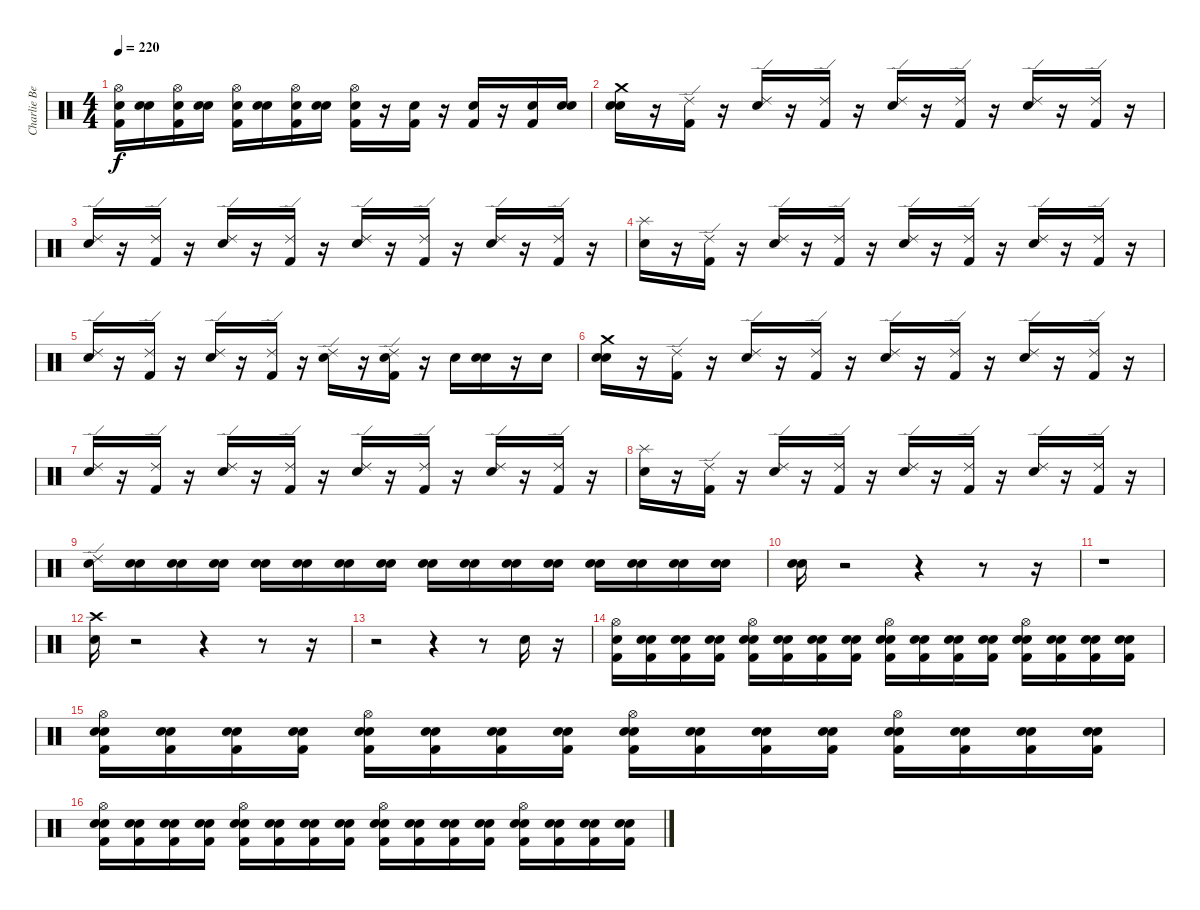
\track ("Charlie Benante" "Charlie Be") {instrument percussion}
\staff {score}
\articulation defaults
\ts (4 4)
\tempo 220
\clef neutral
\ks c
("Snare (hit)" "Kick (hit) 2" "Hi-Hat (open)").16{dy f} ("Snare (hit)" "Snare (hit) 2").16 ("Snare (hit)" "Kick (hit) 2" "Hi-Hat (open)").16 ("Snare (hit)" "Snare (hit) 2").16 ("Snare (hit)" "Kick (hit) 2" "Hi-Hat (open)").16 ("Snare (hit)" "Snare (hit) 2").16 ("Snare (hit)" "Kick (hit) 2" "Hi-Hat (open)").16 ("Snare (hit)" "Snare (hit) 2").16 ("Snare (hit)" "Kick (hit) 2" "Hi-Hat (open)").16 r.16 ("Kick (hit) 2" "Snare (hit) 2").16 r.16 ("Kick (hit) 2" "Snare (hit) 2").16 r.16 ("Kick (hit) 2" "Snare (hit) 2").16 ("Snare (hit)" "Snare (hit) 2").16 |
("Snare (hit)" "Snare (hit) 2" "Crash medium (hit)").16 r.16 ("Kick (hit) 2" "Ride (edge) 2").16 r.16 ("Snare (hit) 2" "Ride (edge) 2").16 r.16 ("Kick (hit) 2" "Ride (edge) 2").16 r.16 ("Snare (hit) 2" "Ride (edge) 2").16 r.16 ("Kick (hit) 2" "Ride (edge) 2").16 r.16 ("Snare (hit) 2" "Ride (edge) 2").16 r.16 ("Kick (hit) 2" "Ride (edge) 2").16 r.16 |
("Snare (hit) 2" "Ride (edge) 2").16 r.16 ("Kick (hit) 2" "Ride (edge) 2").16 r.16 ("Snare (hit) 2" "Ride (edge) 2").16 r.16 ("Kick (hit) 2" "Ride (edge) 2").16 r.16 ("Snare (hit) 2" "Ride (edge) 2").16 r.16 ("Kick (hit) 2" "Ride (edge) 2").16 r.16 ("Snare (hit) 2" "Ride (edge) 2").16 r.16 ("Kick (hit) 2" "Ride (edge) 2").16 r.16 |
("Snare (hit) 2" "Splash (hit)").16 r.16 ("Kick (hit) 2" "Ride (edge) 2").16 r.16 ("Snare (hit) 2" "Ride (edge) 2").16 r.16 ("Kick (hit) 2" "Ride (edge) 2").16 r.16 ("Snare (hit) 2" "Ride (edge) 2").16 r.16 ("Kick (hit) 2" "Ride (edge) 2").16 r.16 ("Snare (hit) 2" "Ride (edge) 2").16 r.16 ("Kick (hit) 2" "Ride (edge) 2").16 r.16 |
("Snare (hit) 2" "Ride (edge) 2").16 r.16 ("Kick (hit) 2" "Ride (edge) 2").16 r.16 ("Snare (hit) 2" "Ride (edge) 2").16 r.16 ("Kick (hit) 2" "Ride (edge) 2").16 r.16 ("Snare (hit) 2" "Ride (edge) 2").16 r.16 ("Kick (hit) 2" "Snare (hit) 2" "Ride (edge) 2").16 r.16 "Snare (hit) 2".16 ("Snare (hit)" "Snare (hit) 2").16 r.16 "Snare (hit) 2".16 |
("Snare (hit)" "Snare (hit) 2" "Crash medium (hit)").16 r.16 ("Kick (hit) 2" "Ride (edge) 2").16 r.16 ("Snare (hit) 2" "Ride (edge) 2").16 r.16 ("Kick (hit) 2" "Ride (edge) 2").16 r.16 ("Snare (hit) 2" "Ride (edge) 2").16 r.16 ("Kick (hit) 2" "Ride (edge) 2").16 r.16 ("Snare (hit) 2" "Ride (edge) 2").16 r.16 ("Kick (hit) 2" "Ride (edge) 2").16 r.16 |
("Snare (hit) 2" "Ride (edge) 2").16 r.16 ("Kick (hit) 2" "Ride (edge) 2").16 r.16 ("Snare (hit) 2" "Ride (edge) 2").16 r.16 ("Kick (hit) 2" "Ride (edge) 2").16 r.16 ("Snare (hit) 2" "Ride (edge) 2").16 r.16 ("Kick (hit) 2" "Ride (edge) 2").16 r.16 ("Snare (hit) 2" "Ride (edge) 2").16 r.16 ("Kick (hit) 2" "Ride (edge) 2").16 r.16 |
("Snare (hit) 2" "Splash (hit)").16 r.16 ("Kick (hit) 2" "Ride (edge) 2").16 r.16 ("Snare (hit) 2" "Ride (edge) 2").16 r.16 ("Kick (hit) 2" "Ride (edge) 2").16 r.16 ("Snare (hit) 2" "Ride (edge) 2").16 r.16 ("Kick (hit) 2" "Ride (edge) 2").16 r.16 ("Snare (hit) 2" "Ride (edge) 2").16 r.16 ("Kick (hit) 2" "Ride (edge) 2").16 r.16 |
("Snare (hit) 2" "Ride (edge) 2").16 ("Snare (hit)" "Snare (hit) 2").16 ("Snare (hit)" "Snare (hit) 2").16 ("Snare (hit)" "Snare (hit) 2").16 ("Snare (hit)" "Snare (hit) 2").16 ("Snare (hit)" "Snare (hit) 2").16 ("Snare (hit)" "Snare (hit) 2").16 ("Snare (hit)" "Snare (hit) 2").16 ("Snare (hit)" "Snare (hit) 2").16 ("Snare (hit)" "Snare (hit) 2").16 ("Snare (hit)" "Snare (hit) 2").16 ("Snare (hit)" "Snare (hit) 2").16 ("Snare (hit)" "Snare (hit) 2").16 ("Snare (hit)" "Snare (hit) 2").16 ("Snare (hit)" "Snare (hit) 2").16 ("Snare (hit)" "Snare (hit) 2").16 |
("Snare (hit)" "Snare (hit) 2").16 r.2 r.4 r.8 r.16 |
r.1 |
("Snare (hit) 2" "Crash high (hit)").16 r.2 r.4 r.8 r.16 |
r.2 r.4 r.8 "Snare (hit) 2".16 r.16 |
("Kick (hit) 2" "Snare (hit) 2" "Hi-Hat (open)").16 ("Snare (hit)" "Kick (hit) 2" "Snare (hit) 2").16 ("Snare (hit)" "Kick (hit) 2" "Snare (hit) 2").16 ("Snare (hit)" "Kick (hit) 2" "Snare (hit) 2").16 ("Snare (hit)" "Kick (hit) 2" "Snare (hit) 2" "Hi-Hat (open)").16 ("Snare (hit)" "Kick (hit) 2" "Snare (hit) 2").16 ("Snare (hit)" "Kick (hit) 2" "Snare (hit) 2").16 ("Snare (hit)" "Kick (hit) 2" "Snare (hit) 2").16 ("Snare (hit)" "Kick (hit) 2" "Snare (hit) 2" "Hi-Hat (open)").16 ("Snare (hit)" "Kick (hit) 2" "Snare (hit) 2").16 ("Snare (hit)" "Kick (hit) 2" "Snare (hit) 2").16 ("Snare (hit)" "Kick (hit) 2" "Snare (hit) 2").16 ("Snare (hit)" "Kick (hit) 2" "Snare (hit) 2" "Hi-Hat (open)").16 ("Snare (hit)" "Kick (hit) 2" "Snare (hit) 2").16 ("Snare (hit)" "Kick (hit) 2" "Snare (hit) 2").16 ("Snare (hit)" "Kick (hit) 2" "Snare (hit) 2").16 |
("Snare (hit)" "Kick (hit) 2" "Snare (hit) 2" "Hi-Hat (open)").16 ("Snare (hit)" "Kick (hit) 2" "Snare (hit) 2").16 ("Snare (hit)" "Kick (hit) 2" "Snare (hit) 2").16 ("Snare (hit)" "Kick (hit) 2" "Snare (hit) 2").16 ("Snare (hit)" "Kick (hit) 2" "Snare (hit) 2" "Hi-Hat (open)").16 ("Snare (hit)" "Kick (hit) 2" "Snare (hit) 2").16 ("Snare (hit)" "Kick (hit) 2" "Snare (hit) 2").16 ("Snare (hit)" "Kick (hit) 2" "Snare (hit) 2").16 ("Snare (hit)" "Kick (hit) 2" "Snare (hit) 2" "Hi-Hat (open)").16 ("Snare (hit)" "Kick (hit) 2" "Snare (hit) 2").16 ("Snare (hit)" "Kick (hit) 2" "Snare (hit) 2").16 ("Snare (hit)" "Kick (hit) 2" "Snare (hit) 2").16 ("Snare (hit)" "Kick (hit) 2" "Snare (hit) 2" "Hi-Hat (open)").16 ("Snare (hit)" "Kick (hit) 2" "Snare (hit) 2").16 ("Snare (hit)" "Kick (hit) 2" "Snare (hit) 2").16 ("Snare (hit)" "Kick (hit) 2" "Snare (hit) 2").16 |
("Snare (hit)" "Kick (hit) 2" "Snare (hit) 2" "Hi-Hat (open)").16 ("Snare (hit)" "Kick (hit) 2" "Snare (hit) 2").16 ("Snare (hit)" "Kick (hit) 2" "Snare (hit) 2").16 ("Snare (hit)" "Kick (hit) 2" "Snare (hit) 2").16 ("Snare (hit)" "Kick (hit) 2" "Snare (hit) 2" "Hi-Hat (open)").16 ("Snare (hit)" "Kick (hit) 2" "Snare (hit) 2").16 ("Snare (hit)" "Kick (hit) 2" "Snare (hit) 2").16 ("Snare (hit)" "Kick (hit) 2" "Snare (hit) 2").16 ("Snare (hit)" "Kick (hit) 2" "Snare (hit) 2" "Hi-Hat (open)").16 ("Snare (hit)" "Kick (hit) 2" "Snare (hit) 2").16 ("Snare (hit)" "Kick (hit) 2" "Snare (hit) 2").16 ("Snare (hit)" "Kick (hit) 2" "Snare (hit) 2").16 ("Snare (hit)" "Kick (hit) 2" "Snare (hit) 2" "Hi-Hat (open)").16 ("Snare (hit)" "Kick (hit) 2" "Snare (hit) 2").16 ("Snare (hit)" "Kick (hit) 2" "Snare (hit) 2").16 ("Snare (hit)" "Kick (hit) 2" "Snare (hit) 2").16
